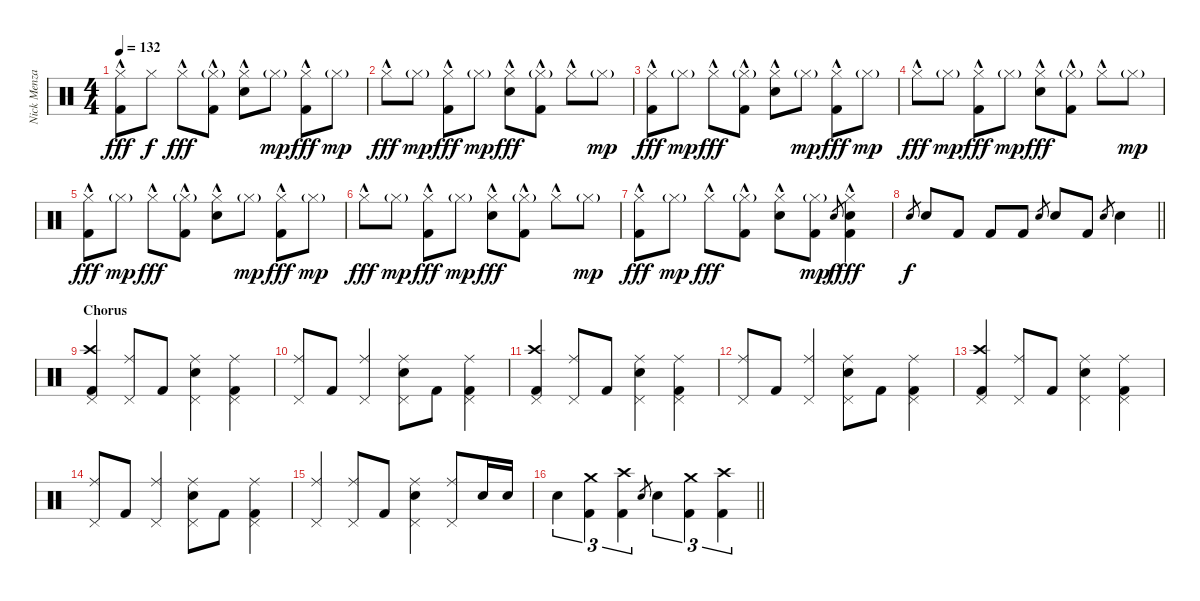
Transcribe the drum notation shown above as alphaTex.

\track ("Nick Menza" "Nick Menza") {instrument percussion}
\staff {score}
\articulation defaults
\ts (4 4)
\tempo 132
\clef neutral
\ks c
("Hi-Hat (closed)"{hac} "Kick (hit) 2").8{dy fff} "Hi-Hat (closed)".8{dy f} "Hi-Hat (closed)"{hac}.8{dy fff} ("Hi-Hat (closed)"{g} "Kick (hit) 2"{hac}).8 ("Hi-Hat (closed)"{hac} "Snare (hit) 2"{hac}).8 "Hi-Hat (closed)"{g}.8{dy mp} ("Hi-Hat (closed)"{hac} "Kick (hit) 2"{hac}).8{dy fff} "Hi-Hat (closed)"{g}.8{dy mp} |
"Hi-Hat (closed)"{hac}.8{dy fff} "Hi-Hat (closed)"{g}.8{dy mp} ("Hi-Hat (closed)"{hac} "Kick (hit) 2"{hac}).8{dy fff} "Hi-Hat (closed)"{g}.8{dy mp} ("Hi-Hat (closed)"{hac} "Snare (hit) 2"{hac}).8{dy fff} ("Hi-Hat (closed)"{g} "Kick (hit) 2"{hac}).8 "Hi-Hat (closed)"{hac}.8 "Hi-Hat (closed)"{g}.8{dy mp} |
("Hi-Hat (closed)"{hac} "Kick (hit) 2"{hac}).8{dy fff} "Hi-Hat (closed)"{g}.8{dy mp} "Hi-Hat (closed)"{hac}.8{dy fff} ("Hi-Hat (closed)"{g} "Kick (hit) 2"{hac}).8 ("Hi-Hat (closed)"{hac} "Snare (hit) 2"{hac}).8 "Hi-Hat (closed)"{g}.8{dy mp} ("Hi-Hat (closed)"{hac} "Kick (hit) 2"{hac}).8{dy fff} "Hi-Hat (closed)"{g}.8{dy mp} |
"Hi-Hat (closed)"{hac}.8{dy fff} "Hi-Hat (closed)"{g}.8{dy mp} ("Hi-Hat (closed)"{hac} "Kick (hit) 2"{hac}).8{dy fff} "Hi-Hat (closed)"{g}.8{dy mp} ("Hi-Hat (closed)"{hac} "Snare (hit) 2"{hac}).8{dy fff} ("Hi-Hat (closed)"{g} "Kick (hit) 2"{hac}).8 "Hi-Hat (closed)"{hac}.8 "Hi-Hat (closed)"{g}.8{dy mp} |
("Hi-Hat (closed)"{hac} "Kick (hit) 2"{hac}).8{dy fff} "Hi-Hat (closed)"{g}.8{dy mp} "Hi-Hat (closed)"{hac}.8{dy fff} ("Hi-Hat (closed)"{g} "Kick (hit) 2"{hac}).8 ("Hi-Hat (closed)"{hac} "Snare (hit) 2"{hac}).8 "Hi-Hat (closed)"{g}.8{dy mp} ("Hi-Hat (closed)"{hac} "Kick (hit) 2"{hac}).8{dy fff} "Hi-Hat (closed)"{g}.8{dy mp} |
"Hi-Hat (closed)"{hac}.8{dy fff} "Hi-Hat (closed)"{g}.8{dy mp} ("Hi-Hat (closed)"{hac} "Kick (hit) 2"{hac}).8{dy fff} "Hi-Hat (closed)"{g}.8{dy mp} ("Hi-Hat (closed)"{hac} "Snare (hit) 2"{hac}).8{dy fff} ("Hi-Hat (closed)"{g} "Kick (hit) 2"{hac}).8 "Hi-Hat (closed)"{hac}.8 "Hi-Hat (closed)"{g}.8{dy mp} |
("Hi-Hat (closed)"{hac} "Kick (hit) 2"{hac}).8{dy fff} "Hi-Hat (closed)"{g}.8{dy mp} "Hi-Hat (closed)"{hac}.8{dy fff} ("Hi-Hat (closed)"{g} "Kick (hit) 2"{hac}).8 ("Hi-Hat (closed)"{hac} "Snare (hit) 2"{hac}).8 ("Hi-Hat (closed)"{g} "Kick (hit) 2").8{dy mp} "Snare (hit) 2".8{gr dy f} ("Hi-Hat (closed)"{hac} "Snare (hit) 2" "Kick (hit) 2"{hac}).4{dy fff} |
\barLineRight lightlight "Snare (hit) 2".8{gr dy f} "Snare (hit) 2".8 "Kick (hit) 2".8 "Kick (hit) 2".8 "Kick (hit) 2".8 "Snare (hit) 2".8{gr} "Snare (hit) 2".8 "Kick (hit) 2".8 "Snare (hit) 2".8{gr} "Snare (hit) 2".4
|
\section ("" "Chorus")
("Crash high (hit)" "Pedal Hi-Hat (hit)" "Kick (hit) 2").4 ("Ride (middle)" "Pedal Hi-Hat (hit)").8 "Kick (hit) 2".8 ("Ride (middle)" "Pedal Hi-Hat (hit)" "Snare (hit) 2").4 ("Ride (middle)" "Pedal Hi-Hat (hit)" "Kick (hit) 2").4 |
("Ride (middle)" "Pedal Hi-Hat (hit)").8 "Kick (hit) 2".8 ("Ride (middle)" "Pedal Hi-Hat (hit)").4 ("Ride (middle)" "Pedal Hi-Hat (hit)" "Snare (hit) 2").8 "Kick (hit) 2".8 ("Ride (middle)" "Pedal Hi-Hat (hit)" "Kick (hit) 2").4 |
("Crash high (hit)" "Pedal Hi-Hat (hit)" "Kick (hit) 2").4 ("Ride (middle)" "Pedal Hi-Hat (hit)").8 "Kick (hit) 2".8 ("Ride (middle)" "Pedal Hi-Hat (hit)" "Snare (hit) 2").4 ("Ride (middle)" "Pedal Hi-Hat (hit)" "Kick (hit) 2").4 |
("Ride (middle)" "Pedal Hi-Hat (hit)").8 "Kick (hit) 2".8 ("Ride (middle)" "Pedal Hi-Hat (hit)").4 ("Ride (middle)" "Pedal Hi-Hat (hit)" "Snare (hit) 2").8 "Kick (hit) 2".8 ("Ride (middle)" "Pedal Hi-Hat (hit)" "Kick (hit) 2").4 |
("Crash high (hit)" "Pedal Hi-Hat (hit)" "Kick (hit) 2").4 ("Ride (middle)" "Pedal Hi-Hat (hit)").8 "Kick (hit) 2".8 ("Ride (middle)" "Pedal Hi-Hat (hit)" "Snare (hit) 2").4 ("Ride (middle)" "Pedal Hi-Hat (hit)" "Kick (hit) 2").4 |
("Ride (middle)" "Pedal Hi-Hat (hit)").8 "Kick (hit) 2".8 ("Ride (middle)" "Pedal Hi-Hat (hit)").4 ("Ride (middle)" "Pedal Hi-Hat (hit)" "Snare (hit) 2").8 "Kick (hit) 2".8 ("Ride (middle)" "Pedal Hi-Hat (hit)" "Kick (hit) 2").4 |
("Ride (middle)" "Pedal Hi-Hat (hit)").4 ("Ride (middle)" "Pedal Hi-Hat (hit)").8 "Kick (hit) 2".8 ("Ride (middle)" "Pedal Hi-Hat (hit)" "Snare (hit) 2").4 ("Ride (middle)" "Pedal Hi-Hat (hit)").8 "Snare (hit) 2".16 "Snare (hit) 2".16 |
\barLineRight lightlight "Snare (hit) 2".4{tu (3 2)}
("Crash medium (hit)" "Kick (hit) 2").4{tu (3 2)} ("Crash high (hit)" "Kick (hit) 2").4{tu (3 2)} "Snare (hit) 2".8{gr} "Snare (hit) 2".4{tu (3 2)} ("Crash medium (hit)" "Kick (hit) 2").4{tu (3 2)} ("Crash high (hit)" "Kick (hit) 2").4{tu (3 2)}
